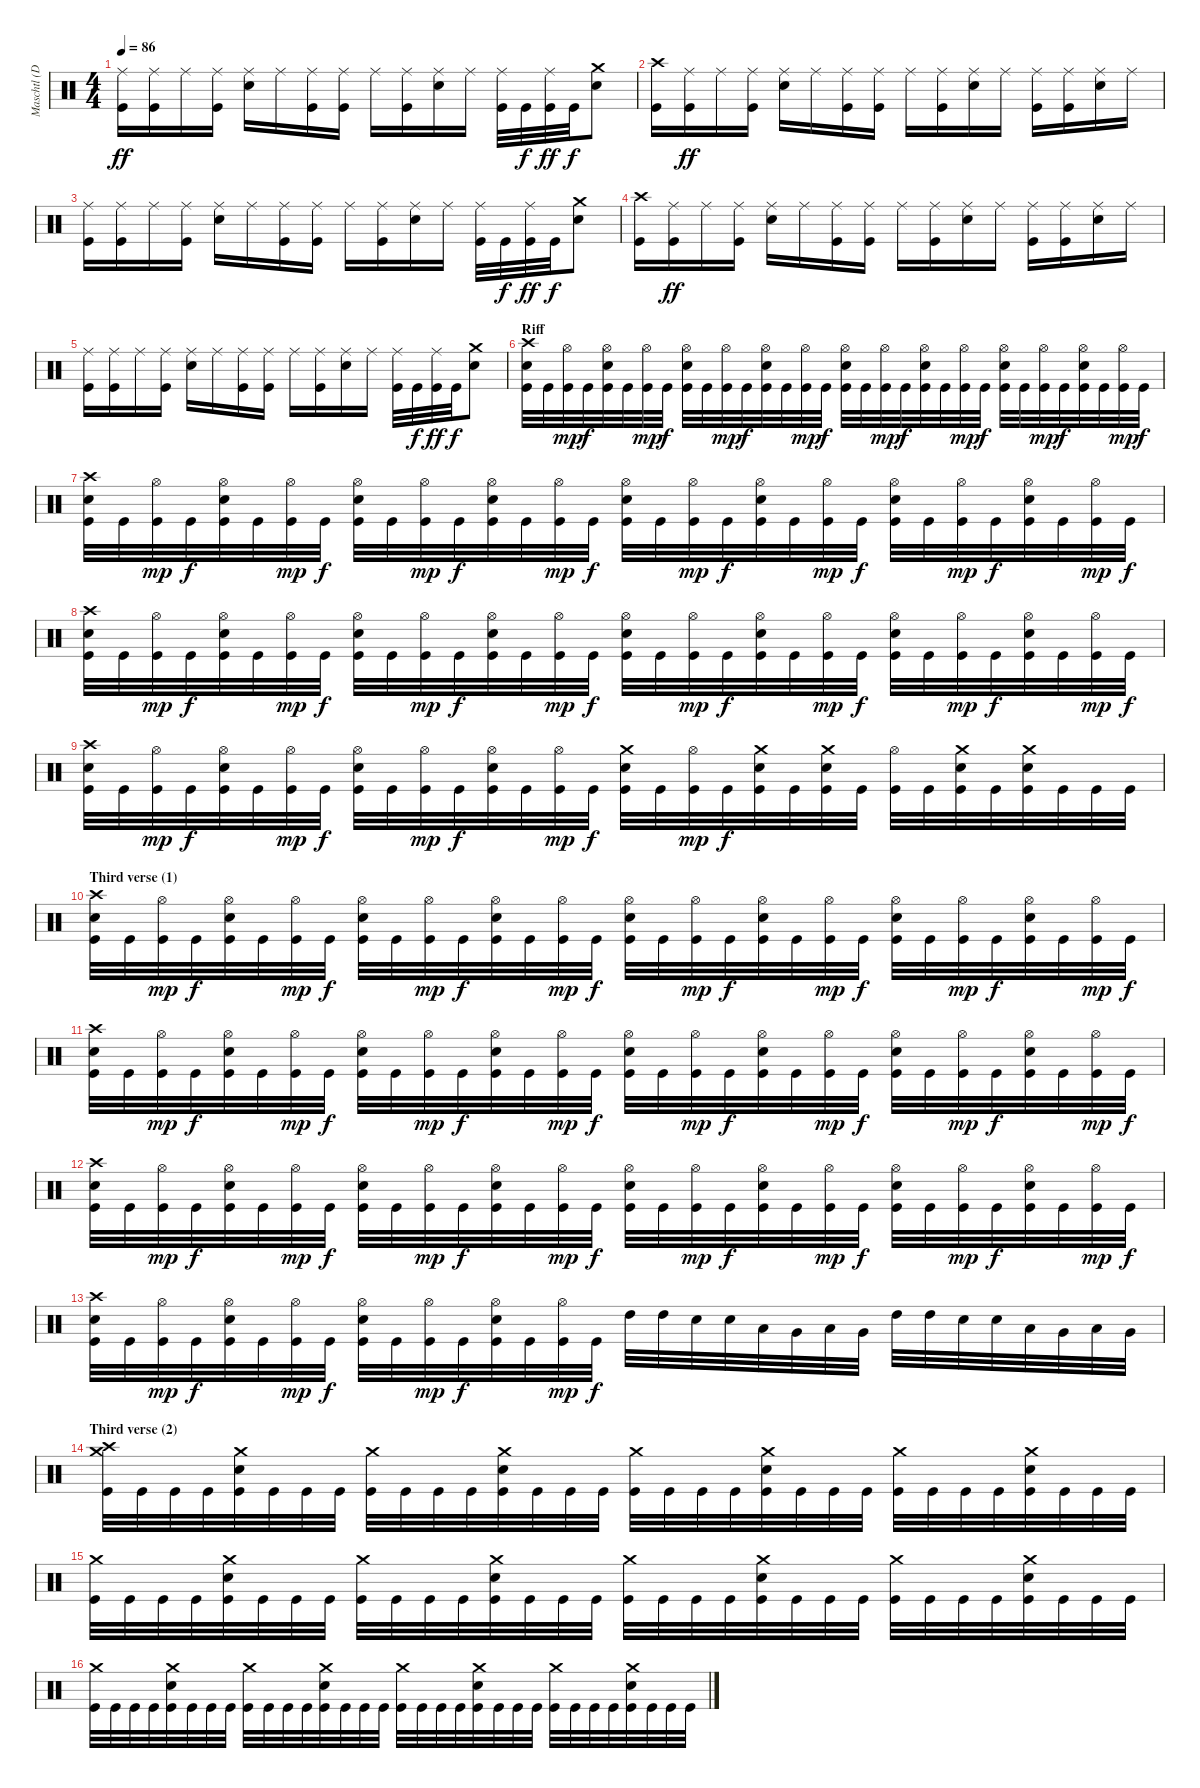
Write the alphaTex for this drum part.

\track ("Maschtl (Drums)" "Maschtl (D") {instrument percussion}
\staff {score}
\articulation defaults
\ts (4 4)
\tempo 86
\clef neutral
\ks c
("Ride (middle)" "Kick (hit)").16{dy ff} ("Ride (middle)" "Kick (hit)").16 "Ride (middle)".16 ("Ride (middle)" "Kick (hit)").16 ("Ride (middle)" "Electric Snare (hit)").16 "Ride (middle)".16 ("Ride (middle)" "Kick (hit)").16 ("Ride (middle)" "Kick (hit)").16 "Ride (middle)".16 ("Ride (middle)" "Kick (hit)").16 ("Ride (middle)" "Electric Snare (hit)").16 "Ride (middle)".16 ("Ride (middle)" "Kick (hit)").32 "Kick (hit)".32{dy f} ("Ride (middle)" "Kick (hit)").32{dy ff} "Kick (hit)".32{dy f} ("Crash medium (hit)" "Electric Snare (hit)").8 |
("Crash high (hit)" "Kick (hit)").16 ("Ride (middle)" "Kick (hit)").16{dy ff} "Ride (middle)".16 ("Ride (middle)" "Kick (hit)").16 ("Ride (middle)" "Electric Snare (hit)").16 "Ride (middle)".16 ("Ride (middle)" "Kick (hit)").16 ("Ride (middle)" "Kick (hit)").16 "Ride (middle)".16 ("Ride (middle)" "Kick (hit)").16 ("Ride (middle)" "Electric Snare (hit)").16 "Ride (middle)".16 ("Ride (middle)" "Kick (hit)").16 ("Ride (middle)" "Kick (hit)").16 ("Ride (middle)" "Electric Snare (hit)").16 "Ride (middle)".16 |
("Ride (middle)" "Kick (hit)").16 ("Ride (middle)" "Kick (hit)").16 "Ride (middle)".16 ("Ride (middle)" "Kick (hit)").16 ("Ride (middle)" "Electric Snare (hit)").16 "Ride (middle)".16 ("Ride (middle)" "Kick (hit)").16 ("Ride (middle)" "Kick (hit)").16 "Ride (middle)".16 ("Ride (middle)" "Kick (hit)").16 ("Ride (middle)" "Electric Snare (hit)").16 "Ride (middle)".16 ("Ride (middle)" "Kick (hit)").32 "Kick (hit)".32{dy f} ("Ride (middle)" "Kick (hit)").32{dy ff} "Kick (hit)".32{dy f} ("Crash medium (hit)" "Electric Snare (hit)").8 |
("Crash high (hit)" "Kick (hit)").16 ("Ride (middle)" "Kick (hit)").16{dy ff} "Ride (middle)".16 ("Ride (middle)" "Kick (hit)").16 ("Ride (middle)" "Electric Snare (hit)").16 "Ride (middle)".16 ("Ride (middle)" "Kick (hit)").16 ("Ride (middle)" "Kick (hit)").16 "Ride (middle)".16 ("Ride (middle)" "Kick (hit)").16 ("Ride (middle)" "Electric Snare (hit)").16 "Ride (middle)".16 ("Ride (middle)" "Kick (hit)").16 ("Ride (middle)" "Kick (hit)").16 ("Ride (middle)" "Electric Snare (hit)").16 "Ride (middle)".16 |
("Ride (middle)" "Kick (hit)").16 ("Ride (middle)" "Kick (hit)").16 "Ride (middle)".16 ("Ride (middle)" "Kick (hit)").16 ("Ride (middle)" "Electric Snare (hit)").16 "Ride (middle)".16 ("Ride (middle)" "Kick (hit)").16 ("Ride (middle)" "Kick (hit)").16 "Ride (middle)".16 ("Ride (middle)" "Kick (hit)").16 ("Ride (middle)" "Electric Snare (hit)").16 "Ride (middle)".16 ("Ride (middle)" "Kick (hit)").32 "Kick (hit)".32{dy f} ("Ride (middle)" "Kick (hit)").32{dy ff} "Kick (hit)".32{dy f} ("Crash medium (hit)" "Electric Snare (hit)").8 |
\section ("" "Riff")
("Crash high (hit)" "Electric Snare (hit)" "Kick (hit)").32 "Kick (hit)".32 ("Hi-Hat (open)" "Kick (hit)").32{dy mp} "Kick (hit)".32{dy f} ("Hi-Hat (open)" "Electric Snare (hit)" "Kick (hit)").32 "Kick (hit)".32 ("Hi-Hat (open)" "Kick (hit)").32{dy mp} "Kick (hit)".32{dy f} ("Hi-Hat (open)" "Electric Snare (hit)" "Kick (hit)").32 "Kick (hit)".32 ("Hi-Hat (open)" "Kick (hit)").32{dy mp} "Kick (hit)".32{dy f} ("Hi-Hat (open)" "Electric Snare (hit)" "Kick (hit)").32 "Kick (hit)".32 ("Hi-Hat (open)" "Kick (hit)").32{dy mp} "Kick (hit)".32{dy f} ("Hi-Hat (open)" "Electric Snare (hit)" "Kick (hit)").32 "Kick (hit)".32 ("Hi-Hat (open)" "Kick (hit)").32{dy mp} "Kick (hit)".32{dy f} ("Hi-Hat (open)" "Electric Snare (hit)" "Kick (hit)").32 "Kick (hit)".32 ("Hi-Hat (open)" "Kick (hit)").32{dy mp} "Kick (hit)".32{dy f} ("Hi-Hat (open)" "Electric Snare (hit)" "Kick (hit)").32 "Kick (hit)".32 ("Hi-Hat (open)" "Kick (hit)").32{dy mp} "Kick (hit)".32{dy f} ("Hi-Hat (open)" "Electric Snare (hit)" "Kick (hit)").32 "Kick (hit)".32 ("Hi-Hat (open)" "Kick (hit)").32{dy mp} "Kick (hit)".32{dy f} |
("Crash high (hit)" "Electric Snare (hit)" "Kick (hit)").32 "Kick (hit)".32 ("Hi-Hat (open)" "Kick (hit)").32{dy mp} "Kick (hit)".32{dy f} ("Hi-Hat (open)" "Electric Snare (hit)" "Kick (hit)").32 "Kick (hit)".32 ("Hi-Hat (open)" "Kick (hit)").32{dy mp} "Kick (hit)".32{dy f} ("Hi-Hat (open)" "Electric Snare (hit)" "Kick (hit)").32 "Kick (hit)".32 ("Hi-Hat (open)" "Kick (hit)").32{dy mp} "Kick (hit)".32{dy f} ("Hi-Hat (open)" "Electric Snare (hit)" "Kick (hit)").32 "Kick (hit)".32 ("Hi-Hat (open)" "Kick (hit)").32{dy mp} "Kick (hit)".32{dy f} ("Hi-Hat (open)" "Electric Snare (hit)" "Kick (hit)").32 "Kick (hit)".32 ("Hi-Hat (open)" "Kick (hit)").32{dy mp} "Kick (hit)".32{dy f} ("Hi-Hat (open)" "Electric Snare (hit)" "Kick (hit)").32 "Kick (hit)".32 ("Hi-Hat (open)" "Kick (hit)").32{dy mp} "Kick (hit)".32{dy f} ("Hi-Hat (open)" "Electric Snare (hit)" "Kick (hit)").32 "Kick (hit)".32 ("Hi-Hat (open)" "Kick (hit)").32{dy mp} "Kick (hit)".32{dy f} ("Hi-Hat (open)" "Electric Snare (hit)" "Kick (hit)").32 "Kick (hit)".32 ("Hi-Hat (open)" "Kick (hit)").32{dy mp} "Kick (hit)".32{dy f} |
("Crash high (hit)" "Electric Snare (hit)" "Kick (hit)").32 "Kick (hit)".32 ("Hi-Hat (open)" "Kick (hit)").32{dy mp} "Kick (hit)".32{dy f} ("Hi-Hat (open)" "Electric Snare (hit)" "Kick (hit)").32 "Kick (hit)".32 ("Hi-Hat (open)" "Kick (hit)").32{dy mp} "Kick (hit)".32{dy f} ("Hi-Hat (open)" "Electric Snare (hit)" "Kick (hit)").32 "Kick (hit)".32 ("Hi-Hat (open)" "Kick (hit)").32{dy mp} "Kick (hit)".32{dy f} ("Hi-Hat (open)" "Electric Snare (hit)" "Kick (hit)").32 "Kick (hit)".32 ("Hi-Hat (open)" "Kick (hit)").32{dy mp} "Kick (hit)".32{dy f} ("Hi-Hat (open)" "Electric Snare (hit)" "Kick (hit)").32 "Kick (hit)".32 ("Hi-Hat (open)" "Kick (hit)").32{dy mp} "Kick (hit)".32{dy f} ("Hi-Hat (open)" "Electric Snare (hit)" "Kick (hit)").32 "Kick (hit)".32 ("Hi-Hat (open)" "Kick (hit)").32{dy mp} "Kick (hit)".32{dy f} ("Hi-Hat (open)" "Electric Snare (hit)" "Kick (hit)").32 "Kick (hit)".32 ("Hi-Hat (open)" "Kick (hit)").32{dy mp} "Kick (hit)".32{dy f} ("Hi-Hat (open)" "Electric Snare (hit)" "Kick (hit)").32 "Kick (hit)".32 ("Hi-Hat (open)" "Kick (hit)").32{dy mp} "Kick (hit)".32{dy f} |
("Crash high (hit)" "Electric Snare (hit)" "Kick (hit)").32 "Kick (hit)".32 ("Hi-Hat (open)" "Kick (hit)").32{dy mp} "Kick (hit)".32{dy f} ("Hi-Hat (open)" "Electric Snare (hit)" "Kick (hit)").32 "Kick (hit)".32 ("Hi-Hat (open)" "Kick (hit)").32{dy mp} "Kick (hit)".32{dy f} ("Hi-Hat (open)" "Electric Snare (hit)" "Kick (hit)").32 "Kick (hit)".32 ("Hi-Hat (open)" "Kick (hit)").32{dy mp} "Kick (hit)".32{dy f} ("Hi-Hat (open)" "Electric Snare (hit)" "Kick (hit)").32 "Kick (hit)".32 ("Hi-Hat (open)" "Kick (hit)").32{dy mp} "Kick (hit)".32{dy f} ("Crash medium (hit)" "Electric Snare (hit)" "Kick (hit)").32 "Kick (hit)".32 ("Hi-Hat (open)" "Kick (hit)").32{dy mp} "Kick (hit)".32{dy f} ("Crash medium (hit)" "Electric Snare (hit)" "Kick (hit)").32 "Kick (hit)".32 ("Crash medium (hit)" "Electric Snare (hit)" "Kick (hit)").32 "Kick (hit)".32 ("Hi-Hat (open)" "Kick (hit)").32 "Kick (hit)".32 ("Crash medium (hit)" "Electric Snare (hit)" "Kick (hit)").32 "Kick (hit)".32 ("Crash medium (hit)" "Electric Snare (hit)" "Kick (hit)").32 "Kick (hit)".32 "Kick (hit)".32 "Kick (hit)".32 |
\section ("" "Third verse (1)")
("Crash high (hit)" "Electric Snare (hit)" "Kick (hit)").32 "Kick (hit)".32 ("Hi-Hat (open)" "Kick (hit)").32{dy mp} "Kick (hit)".32{dy f} ("Hi-Hat (open)" "Electric Snare (hit)" "Kick (hit)").32 "Kick (hit)".32 ("Hi-Hat (open)" "Kick (hit)").32{dy mp} "Kick (hit)".32{dy f} ("Hi-Hat (open)" "Electric Snare (hit)" "Kick (hit)").32 "Kick (hit)".32 ("Hi-Hat (open)" "Kick (hit)").32{dy mp} "Kick (hit)".32{dy f} ("Hi-Hat (open)" "Electric Snare (hit)" "Kick (hit)").32 "Kick (hit)".32 ("Hi-Hat (open)" "Kick (hit)").32{dy mp} "Kick (hit)".32{dy f} ("Hi-Hat (open)" "Electric Snare (hit)" "Kick (hit)").32 "Kick (hit)".32 ("Hi-Hat (open)" "Kick (hit)").32{dy mp} "Kick (hit)".32{dy f} ("Hi-Hat (open)" "Electric Snare (hit)" "Kick (hit)").32 "Kick (hit)".32 ("Hi-Hat (open)" "Kick (hit)").32{dy mp} "Kick (hit)".32{dy f} ("Hi-Hat (open)" "Electric Snare (hit)" "Kick (hit)").32 "Kick (hit)".32 ("Hi-Hat (open)" "Kick (hit)").32{dy mp} "Kick (hit)".32{dy f} ("Hi-Hat (open)" "Electric Snare (hit)" "Kick (hit)").32 "Kick (hit)".32 ("Hi-Hat (open)" "Kick (hit)").32{dy mp} "Kick (hit)".32{dy f} |
("Crash high (hit)" "Electric Snare (hit)" "Kick (hit)").32 "Kick (hit)".32 ("Hi-Hat (open)" "Kick (hit)").32{dy mp} "Kick (hit)".32{dy f} ("Hi-Hat (open)" "Electric Snare (hit)" "Kick (hit)").32 "Kick (hit)".32 ("Hi-Hat (open)" "Kick (hit)").32{dy mp} "Kick (hit)".32{dy f} ("Hi-Hat (open)" "Electric Snare (hit)" "Kick (hit)").32 "Kick (hit)".32 ("Hi-Hat (open)" "Kick (hit)").32{dy mp} "Kick (hit)".32{dy f} ("Hi-Hat (open)" "Electric Snare (hit)" "Kick (hit)").32 "Kick (hit)".32 ("Hi-Hat (open)" "Kick (hit)").32{dy mp} "Kick (hit)".32{dy f} ("Hi-Hat (open)" "Electric Snare (hit)" "Kick (hit)").32 "Kick (hit)".32 ("Hi-Hat (open)" "Kick (hit)").32{dy mp} "Kick (hit)".32{dy f} ("Hi-Hat (open)" "Electric Snare (hit)" "Kick (hit)").32 "Kick (hit)".32 ("Hi-Hat (open)" "Kick (hit)").32{dy mp} "Kick (hit)".32{dy f} ("Hi-Hat (open)" "Electric Snare (hit)" "Kick (hit)").32 "Kick (hit)".32 ("Hi-Hat (open)" "Kick (hit)").32{dy mp} "Kick (hit)".32{dy f} ("Hi-Hat (open)" "Electric Snare (hit)" "Kick (hit)").32 "Kick (hit)".32 ("Hi-Hat (open)" "Kick (hit)").32{dy mp} "Kick (hit)".32{dy f} |
("Crash high (hit)" "Electric Snare (hit)" "Kick (hit)").32 "Kick (hit)".32 ("Hi-Hat (open)" "Kick (hit)").32{dy mp} "Kick (hit)".32{dy f} ("Hi-Hat (open)" "Electric Snare (hit)" "Kick (hit)").32 "Kick (hit)".32 ("Hi-Hat (open)" "Kick (hit)").32{dy mp} "Kick (hit)".32{dy f} ("Hi-Hat (open)" "Electric Snare (hit)" "Kick (hit)").32 "Kick (hit)".32 ("Hi-Hat (open)" "Kick (hit)").32{dy mp} "Kick (hit)".32{dy f} ("Hi-Hat (open)" "Electric Snare (hit)" "Kick (hit)").32 "Kick (hit)".32 ("Hi-Hat (open)" "Kick (hit)").32{dy mp} "Kick (hit)".32{dy f} ("Hi-Hat (open)" "Electric Snare (hit)" "Kick (hit)").32 "Kick (hit)".32 ("Hi-Hat (open)" "Kick (hit)").32{dy mp} "Kick (hit)".32{dy f} ("Hi-Hat (open)" "Electric Snare (hit)" "Kick (hit)").32 "Kick (hit)".32 ("Hi-Hat (open)" "Kick (hit)").32{dy mp} "Kick (hit)".32{dy f} ("Hi-Hat (open)" "Electric Snare (hit)" "Kick (hit)").32 "Kick (hit)".32 ("Hi-Hat (open)" "Kick (hit)").32{dy mp} "Kick (hit)".32{dy f} ("Hi-Hat (open)" "Electric Snare (hit)" "Kick (hit)").32 "Kick (hit)".32 ("Hi-Hat (open)" "Kick (hit)").32{dy mp} "Kick (hit)".32{dy f} |
("Crash high (hit)" "Electric Snare (hit)" "Kick (hit)").32 "Kick (hit)".32 ("Hi-Hat (open)" "Kick (hit)").32{dy mp} "Kick (hit)".32{dy f} ("Hi-Hat (open)" "Electric Snare (hit)" "Kick (hit)").32 "Kick (hit)".32 ("Hi-Hat (open)" "Kick (hit)").32{dy mp} "Kick (hit)".32{dy f} ("Hi-Hat (open)" "Electric Snare (hit)" "Kick (hit)").32 "Kick (hit)".32 ("Hi-Hat (open)" "Kick (hit)").32{dy mp} "Kick (hit)".32{dy f} ("Hi-Hat (open)" "Electric Snare (hit)" "Kick (hit)").32 "Kick (hit)".32 ("Hi-Hat (open)" "Kick (hit)").32{dy mp} "Kick (hit)".32{dy f} "High Tom (hit)".32 "High Tom (hit)".32 "Electric Snare (hit)".32 "Electric Snare (hit)".32 "Low Tom (hit)".32 "Very Low Tom (hit)".32 "Low Tom (hit)".32 "Very Low Tom (hit)".32 "High Tom (hit)".32 "High Tom (hit)".32 "Electric Snare (hit)".32 "Electric Snare (hit)".32 "Low Tom (hit)".32 "Very Low Tom (hit)".32 "Low Tom (hit)".32 "Very Low Tom (hit)".32 |
\section ("" "Third verse (2)")
("Crash medium (hit)" "Crash high (hit)" "Kick (hit)").32 "Kick (hit)".32 "Kick (hit)".32 "Kick (hit)".32 ("Crash medium (hit)" "Electric Snare (hit)" "Kick (hit)").32 "Kick (hit)".32 "Kick (hit)".32 "Kick (hit)".32 ("Crash medium (hit)" "Kick (hit)").32 "Kick (hit)".32 "Kick (hit)".32 "Kick (hit)".32 ("Crash medium (hit)" "Electric Snare (hit)" "Kick (hit)").32 "Kick (hit)".32 "Kick (hit)".32 "Kick (hit)".32 ("Crash medium (hit)" "Kick (hit)").32 "Kick (hit)".32 "Kick (hit)".32 "Kick (hit)".32 ("Crash medium (hit)" "Electric Snare (hit)" "Kick (hit)").32 "Kick (hit)".32 "Kick (hit)".32 "Kick (hit)".32 ("Crash medium (hit)" "Kick (hit)").32 "Kick (hit)".32 "Kick (hit)".32 "Kick (hit)".32 ("Crash medium (hit)" "Electric Snare (hit)" "Kick (hit)").32 "Kick (hit)".32 "Kick (hit)".32 "Kick (hit)".32 |
("Crash medium (hit)" "Kick (hit)").32 "Kick (hit)".32 "Kick (hit)".32 "Kick (hit)".32 ("Crash medium (hit)" "Electric Snare (hit)" "Kick (hit)").32 "Kick (hit)".32 "Kick (hit)".32 "Kick (hit)".32 ("Crash medium (hit)" "Kick (hit)").32 "Kick (hit)".32 "Kick (hit)".32 "Kick (hit)".32 ("Crash medium (hit)" "Electric Snare (hit)" "Kick (hit)").32 "Kick (hit)".32 "Kick (hit)".32 "Kick (hit)".32 ("Crash medium (hit)" "Kick (hit)").32 "Kick (hit)".32 "Kick (hit)".32 "Kick (hit)".32 ("Crash medium (hit)" "Electric Snare (hit)" "Kick (hit)").32 "Kick (hit)".32 "Kick (hit)".32 "Kick (hit)".32 ("Crash medium (hit)" "Kick (hit)").32 "Kick (hit)".32 "Kick (hit)".32 "Kick (hit)".32 ("Crash medium (hit)" "Electric Snare (hit)" "Kick (hit)").32 "Kick (hit)".32 "Kick (hit)".32 "Kick (hit)".32 |
("Crash medium (hit)" "Kick (hit)").32 "Kick (hit)".32 "Kick (hit)".32 "Kick (hit)".32 ("Crash medium (hit)" "Electric Snare (hit)" "Kick (hit)").32 "Kick (hit)".32 "Kick (hit)".32 "Kick (hit)".32 ("Crash medium (hit)" "Kick (hit)").32 "Kick (hit)".32 "Kick (hit)".32 "Kick (hit)".32 ("Crash medium (hit)" "Electric Snare (hit)" "Kick (hit)").32 "Kick (hit)".32 "Kick (hit)".32 "Kick (hit)".32 ("Crash medium (hit)" "Kick (hit)").32 "Kick (hit)".32 "Kick (hit)".32 "Kick (hit)".32 ("Crash medium (hit)" "Electric Snare (hit)" "Kick (hit)").32 "Kick (hit)".32 "Kick (hit)".32 "Kick (hit)".32 ("Crash medium (hit)" "Kick (hit)").32 "Kick (hit)".32 "Kick (hit)".32 "Kick (hit)".32 ("Crash medium (hit)" "Electric Snare (hit)" "Kick (hit)").32 "Kick (hit)".32 "Kick (hit)".32 "Kick (hit)".32
